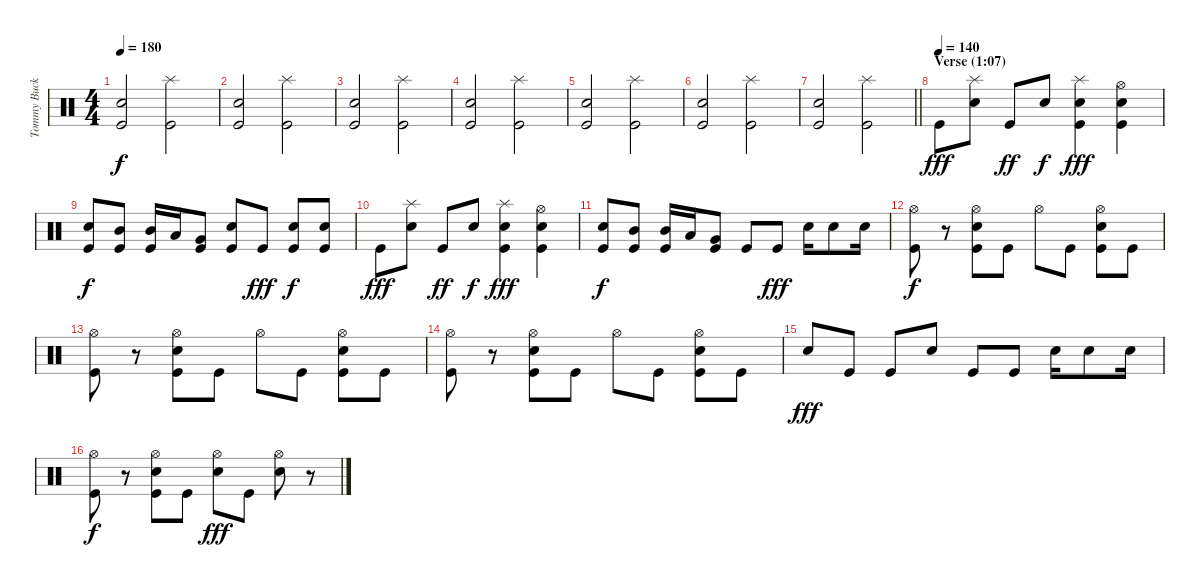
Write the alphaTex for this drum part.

\track ("Tommy Buckly (drums)" "Tommy Buck") {instrument percussion}
\staff {score}
\articulation defaults
\ts (4 4)
\tempo 180
\clef neutral
\ks c
("Electric Snare (hit)" "Kick (hit)").2{dy f} ("Splash (hit)" "Kick (hit)").2 |
("Electric Snare (hit)" "Kick (hit)").2 ("Splash (hit)" "Kick (hit)").2 |
("Electric Snare (hit)" "Kick (hit)").2 ("Splash (hit)" "Kick (hit)").2 |
("Electric Snare (hit)" "Kick (hit)").2 ("Splash (hit)" "Kick (hit)").2 |
("Electric Snare (hit)" "Kick (hit)").2 ("Splash (hit)" "Kick (hit)").2 |
("Electric Snare (hit)" "Kick (hit)").2 ("Splash (hit)" "Kick (hit)").2 |
\barLineRight lightlight
("Electric Snare (hit)" "Kick (hit)").2 ("Splash (hit)" "Kick (hit)").2 |
\section ("" "Verse (1:07)")
\tempo (140)
"Kick (hit)".8{dy fff} ("Splash (hit)" "Electric Snare (hit)").8 "Kick (hit)".8{dy ff} "Electric Snare (hit)".8{dy f} ("Splash (hit)" "Electric Snare (hit)" "Kick (hit)").4{dy fff} ("Hi-Hat (open)" "Electric Snare (hit)" "Kick (hit)").4 |
("Electric Snare (hit)" "Kick (hit)").8{dy f} ("Mid Tom (hit)" "Kick (hit)").8 ("Mid Tom (hit)" "Kick (hit)").16 "Low Tom (hit)".16 ("Very Low Tom (hit)" "Kick (hit)").8 ("Electric Snare (hit)" "Kick (hit)").8 "Kick (hit)".8{dy fff} ("Electric Snare (hit)" "Kick (hit)").8{bd 480 dy f} ("Electric Snare (hit)" "Kick (hit)").8 |
"Kick (hit)".8{dy fff} ("Splash (hit)" "Electric Snare (hit)").8 "Kick (hit)".8{dy ff} "Electric Snare (hit)".8{dy f} ("Splash (hit)" "Electric Snare (hit)" "Kick (hit)").4{dy fff} ("Hi-Hat (open)" "Electric Snare (hit)" "Kick (hit)").4 |
("Electric Snare (hit)" "Kick (hit)").8{dy f} ("Mid Tom (hit)" "Kick (hit)").8 ("Mid Tom (hit)" "Kick (hit)").16 "Low Tom (hit)".16 ("Very Low Tom (hit)" "Kick (hit)").8 "Kick (hit)".8 "Kick (hit)".8{dy fff} "Electric Snare (hit)".16 "Electric Snare (hit)".8 "Electric Snare (hit)".16 |
("Hi-Hat (open)" "Kick (hit)").8{dy f} r.8 ("Hi-Hat (open)" "Electric Snare (hit)" "Kick (hit)").8 "Kick (hit)".8 "Hi-Hat (open)".8 "Kick (hit)".8 ("Hi-Hat (open)" "Electric Snare (hit)" "Kick (hit)").8 "Kick (hit)".8 |
("Hi-Hat (open)" "Kick (hit)").8 r.8 ("Hi-Hat (open)" "Electric Snare (hit)" "Kick (hit)").8 "Kick (hit)".8 "Hi-Hat (open)".8 "Kick (hit)".8 ("Hi-Hat (open)" "Electric Snare (hit)" "Kick (hit)").8 "Kick (hit)".8 |
("Hi-Hat (open)" "Kick (hit)").8 r.8 ("Hi-Hat (open)" "Electric Snare (hit)" "Kick (hit)").8 "Kick (hit)".8 "Hi-Hat (open)".8 "Kick (hit)".8 ("Hi-Hat (open)" "Electric Snare (hit)" "Kick (hit)").8 "Kick (hit)".8 |
"Electric Snare (hit)".8{dy fff} "Kick (hit)".8 "Kick (hit)".8 "Electric Snare (hit)".8 "Kick (hit)".8 "Kick (hit)".8 "Electric Snare (hit)".16 "Electric Snare (hit)".8 "Electric Snare (hit)".16 |
("Hi-Hat (open)" "Kick (hit)").8{dy f} r.8 ("Hi-Hat (open)" "Electric Snare (hit)" "Kick (hit)").8 "Kick (hit)".8 ("Hi-Hat (open)" "Electric Snare (hit)").8{dy fff} "Kick (hit)".8 ("Hi-Hat (open)" "Electric Snare (hit)").8 r.8
